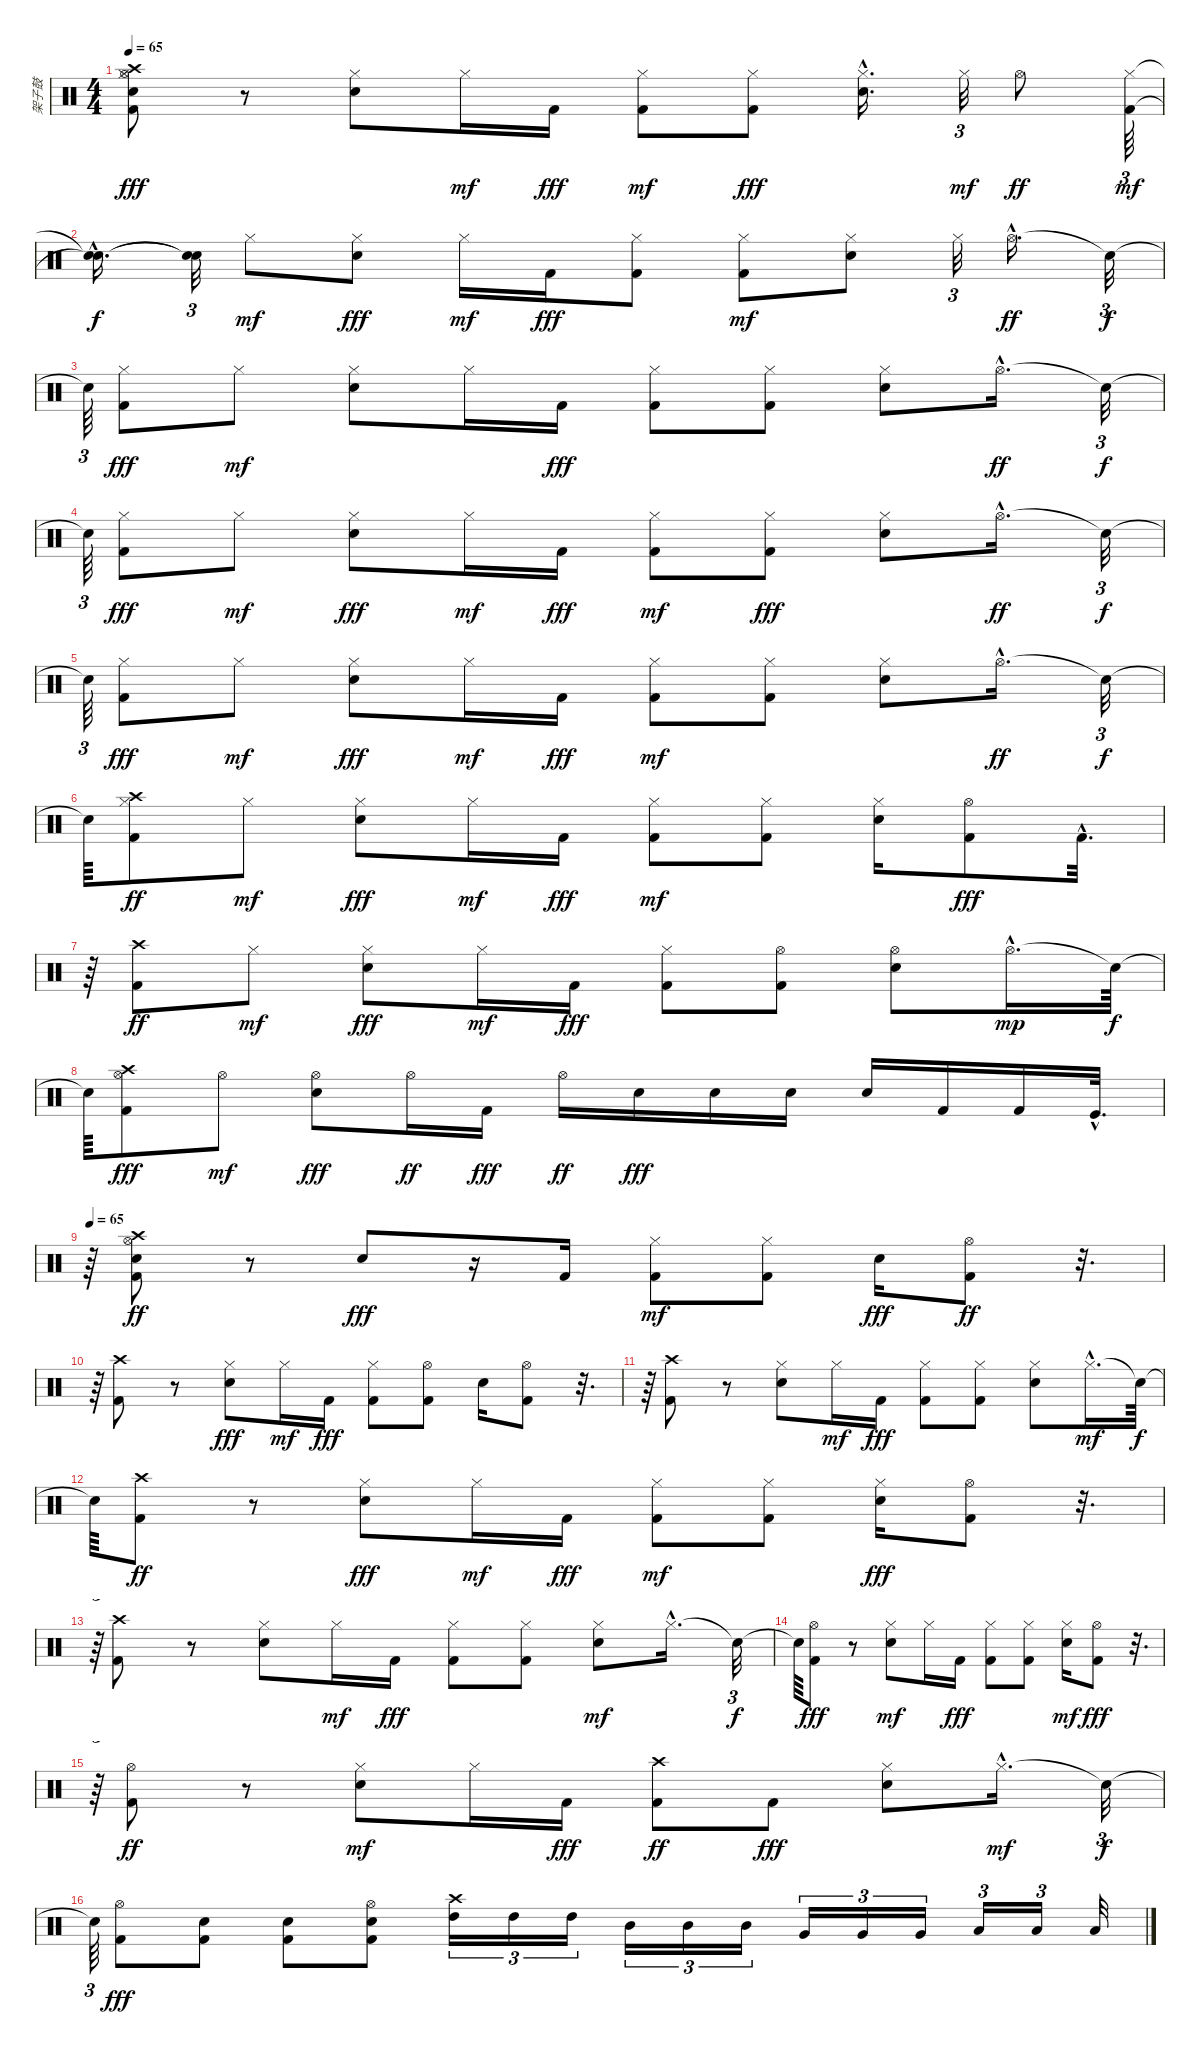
\track ("架子鼓" "架子鼓") {instrument percussion}
\staff {score}
\articulation defaults
\ts (4 4)
\tempo 65
\clef neutral
\ks c
("Hi-Hat (closed)" "Crash high (hit)" "Hi-Hat (open)" "Kick (hit) 2" "Snare (hit) 2").8{dy fff} r.8 ("Hi-Hat (closed)" "Snare (hit) 2").8 "Hi-Hat (closed)".16{dy mf} "Kick (hit) 2".16{dy fff} ("Kick (hit) 2" "Hi-Hat (closed)").8{dy mf} ("Hi-Hat (closed)" "Kick (hit) 2").8{dy fff} ("Hi-Hat (closed)"{hac} "Snare (hit) 2").16{d} "Hi-Hat (closed)".32{tu (3 2) dy mf} "Hi-Hat (open)".8{dy ff} ("Kick (hit) 2" "Hi-Hat (closed)").64{tu (3 2) dy mf} |
("Snare (hit)"{hac t} "Snare (hit)"{hac t}).16{d dy f} ("Snare (hit)"{t} "Snare (hit)"{t}).32{tu (3 2)} "Hi-Hat (closed)".8{dy mf} ("Hi-Hat (closed)" "Snare (hit) 2").8{dy fff} "Hi-Hat (closed)".16{dy mf} "Kick (hit) 2".16{dy fff} ("Hi-Hat (closed)" "Kick (hit) 2").8 ("Kick (hit) 2" "Hi-Hat (closed)").8{dy mf} ("Snare (hit) 2" "Hi-Hat (closed)").8 "Hi-Hat (closed)".32{tu (3 2)} "Hi-Hat (open)"{hac}.16{d dy ff} "Snare (hit)"{t}.32{tu (3 2) dy f} |
"Snare (hit)"{t}.64{tu (3 2)} ("Hi-Hat (closed)" "Kick (hit) 2").8{dy fff} "Hi-Hat (closed)".8{dy mf} ("Snare (hit) 2" "Hi-Hat (closed)").8 "Hi-Hat (closed)".16 "Kick (hit) 2".16{dy fff} ("Hi-Hat (closed)" "Kick (hit) 2").8 ("Hi-Hat (closed)" "Kick (hit) 2").8 ("Hi-Hat (closed)" "Snare (hit) 2").8 "Hi-Hat (open)"{hac}.16{d dy ff} "Snare (hit)"{t}.32{tu (3 2) dy f} |
"Snare (hit)"{t}.64{tu (3 2)} ("Hi-Hat (closed)" "Kick (hit) 2").8{dy fff} "Hi-Hat (closed)".8{dy mf} ("Hi-Hat (closed)" "Snare (hit) 2").8{dy fff} "Hi-Hat (closed)".16{dy mf} "Kick (hit) 2".16{dy fff} ("Kick (hit) 2" "Hi-Hat (closed)").8{dy mf} ("Hi-Hat (closed)" "Kick (hit) 2").8{dy fff} ("Hi-Hat (closed)" "Snare (hit) 2").8 "Hi-Hat (open)"{hac}.16{d dy ff} "Snare (hit)"{t}.32{tu (3 2) dy f} |
"Snare (hit)"{t}.64{tu (3 2)} ("Hi-Hat (closed)" "Kick (hit) 2").8{dy fff} "Hi-Hat (closed)".8{dy mf} ("Hi-Hat (closed)" "Snare (hit) 2").8{dy fff} "Hi-Hat (closed)".16{dy mf} "Kick (hit) 2".16{dy fff} ("Kick (hit) 2" "Hi-Hat (closed)").8{dy mf} ("Kick (hit) 2" "Hi-Hat (closed)").8 ("Snare (hit) 2" "Hi-Hat (closed)").8 "Hi-Hat (open)"{hac}.16{d dy ff} "Snare (hit)"{t}.32{tu (3 2) dy f} |
"Snare (hit)"{t}.64 ("Hi-Hat (closed)" "Kick (hit) 2" "Crash high (hit)").8{dy ff} "Hi-Hat (closed)".8{dy mf} ("Hi-Hat (closed)" "Snare (hit) 2").8{dy fff} "Hi-Hat (closed)".16{dy mf} "Kick (hit) 2".16{dy fff} ("Kick (hit) 2" "Hi-Hat (closed)").8{dy mf} ("Kick (hit) 2" "Hi-Hat (closed)").8 ("Snare (hit) 2" "Hi-Hat (closed)").16 ("Hi-Hat (open)" "Kick (hit) 2").8{dy fff} "Kick (hit) 2"{hac}.32{d} |
r.64 ("Kick (hit) 2" "Crash high (hit)").8{dy ff} "Hi-Hat (closed)".8{dy mf} ("Hi-Hat (closed)" "Snare (hit) 2").8{dy fff} "Hi-Hat (closed)".16{dy mf} "Kick (hit) 2".16{dy fff} ("Hi-Hat (closed)" "Kick (hit) 2").8 ("Hi-Hat (open)" "Kick (hit) 2").8 ("Hi-Hat (open)" "Snare (hit) 2").8 "Hi-Hat (open)"{hac}.16{d dy mp} "Snare (hit)"{t}.64{dy f} |
"Snare (hit)"{t}.64 ("Crash high (hit)" "Hi-Hat (open)" "Kick (hit) 2").8{dy fff} "Hi-Hat (open)".8{dy mf} ("Hi-Hat (open)" "Snare (hit) 2").8{dy fff} "Hi-Hat (open)".16{dy ff} "Kick (hit) 2".16{dy fff} "Hi-Hat (open)".16{dy ff} "Electric Snare (hit)".16{dy fff} "Electric Snare (hit)".16 "Snare (hit) 2".16 "Snare (hit) 2".16 "Kick (hit) 2".16 "Kick (hit) 2".16 "Kick (hit)"{hac}.32{d} |
\tempo 65
r.64 ("Crash high (hit)" "Snare (hit) 2" "Kick (hit) 2" "Hi-Hat (open)").8{dy ff} r.8 "Snare (hit) 2".8{dy fff} r.16 "Kick (hit) 2".16 ("Kick (hit) 2" "Hi-Hat (closed)").8{dy mf} ("Kick (hit) 2" "Hi-Hat (closed)").8 "Snare (hit) 2".16{dy fff} ("Kick (hit) 2" "Hi-Hat (open)").8{dy ff} r.32{d} |
r.64 ("Kick (hit) 2" "Crash high (hit)").8 r.8 ("Hi-Hat (closed)" "Snare (hit) 2").8{dy fff} "Hi-Hat (closed)".16{dy mf} "Kick (hit) 2".16{dy fff} ("Hi-Hat (closed)" "Kick (hit) 2").8 ("Hi-Hat (open)" "Kick (hit) 2").8 "Snare (hit) 2".16 ("Hi-Hat (open)" "Kick (hit) 2").8 r.32{d} |
r.64 ("Crash high (hit)" "Kick (hit) 2").8 r.8 ("Hi-Hat (closed)" "Snare (hit) 2").8 "Hi-Hat (closed)".16{dy mf} "Kick (hit) 2".16{dy fff} ("Hi-Hat (closed)" "Kick (hit) 2").8 ("Hi-Hat (closed)" "Kick (hit) 2").8 ("Hi-Hat (closed)" "Snare (hit) 2").8 "Hi-Hat (closed)"{hac}.16{d dy mf} "Snare (hit)"{t}.64{dy f} |
"Snare (hit)"{t}.64 ("Kick (hit) 2" "Crash high (hit)").8{dy ff} r.8 ("Hi-Hat (closed)" "Snare (hit) 2").8{dy fff} "Hi-Hat (closed)".16{dy mf} "Kick (hit) 2".16{dy fff} ("Kick (hit) 2" "Hi-Hat (closed)").8{dy mf} ("Kick (hit) 2" "Hi-Hat (closed)").8 ("Hi-Hat (closed)" "Snare (hit) 2").16{dy fff} ("Hi-Hat (open)" "Kick (hit) 2").8 r.32{d} |
r.64{tu (3 2)} ("Crash high (hit)" "Kick (hit) 2").8 r.8 ("Hi-Hat (closed)" "Snare (hit) 2").8 "Hi-Hat (closed)".16{dy mf} "Kick (hit) 2".16{dy fff} ("Hi-Hat (closed)" "Kick (hit) 2").8 ("Hi-Hat (closed)" "Kick (hit) 2").8 ("Snare (hit) 2" "Hi-Hat (closed)").8{dy mf} "Hi-Hat (closed)"{hac}.16{d} "Snare (hit)"{t}.32{tu (3 2) dy f} |
"Snare (hit)"{t}.64 ("Hi-Hat (open)" "Kick (hit) 2").8{dy fff} r.8 ("Snare (hit) 2" "Hi-Hat (closed)").8{dy mf} "Hi-Hat (closed)".16 "Kick (hit) 2".16{dy fff} ("Hi-Hat (closed)" "Kick (hit) 2").8 ("Hi-Hat (closed)" "Kick (hit) 2").8 ("Snare (hit) 2" "Hi-Hat (closed)").16{dy mf} ("Hi-Hat (open)" "Kick (hit) 2").8{dy fff} r.32{d} |
r.64{tu (3 2)} ("Kick (hit) 2" "Hi-Hat (open)").8{dy ff} r.8 ("Snare (hit) 2" "Hi-Hat (closed)").8{dy mf} "Hi-Hat (closed)".16 "Kick (hit) 2".16{dy fff} ("Kick (hit) 2" "Crash high (hit)").8{dy ff} "Kick (hit) 2".8{dy fff} ("Hi-Hat (closed)" "Snare (hit) 2").8 "Hi-Hat (closed)"{hac}.16{d dy mf} "Snare (hit)"{t}.32{tu (3 2) dy f} |
"Snare (hit)"{t}.64{tu (3 2)} ("Hi-Hat (open)" "Kick (hit) 2").8{dy fff} ("Snare (hit) 2" "Kick (hit) 2").8 ("Kick (hit) 2" "Snare (hit) 2").8 ("Hi-Hat (open)" "Snare (hit) 2" "Kick (hit) 2").8 ("Crash high (hit)" "High Tom (hit)").16{tu (3 2)} "High Tom (hit)".16{tu (3 2)} "High Tom (hit)".16{tu (3 2)} "Mid Tom (hit)".16{tu (3 2)} "Mid Tom (hit)".16{tu (3 2)} "Mid Tom (hit)".16{tu (3 2)} "Very Low Tom (hit)".16{tu (3 2)} "Very Low Tom (hit)".16{tu (3 2)} "Very Low Tom (hit)".16{tu (3 2)} "Low Floor Tom (hit)".16{tu (3 2)} "Low Floor Tom (hit)".16{tu (3 2)} "Low Floor Tom (hit)".32
